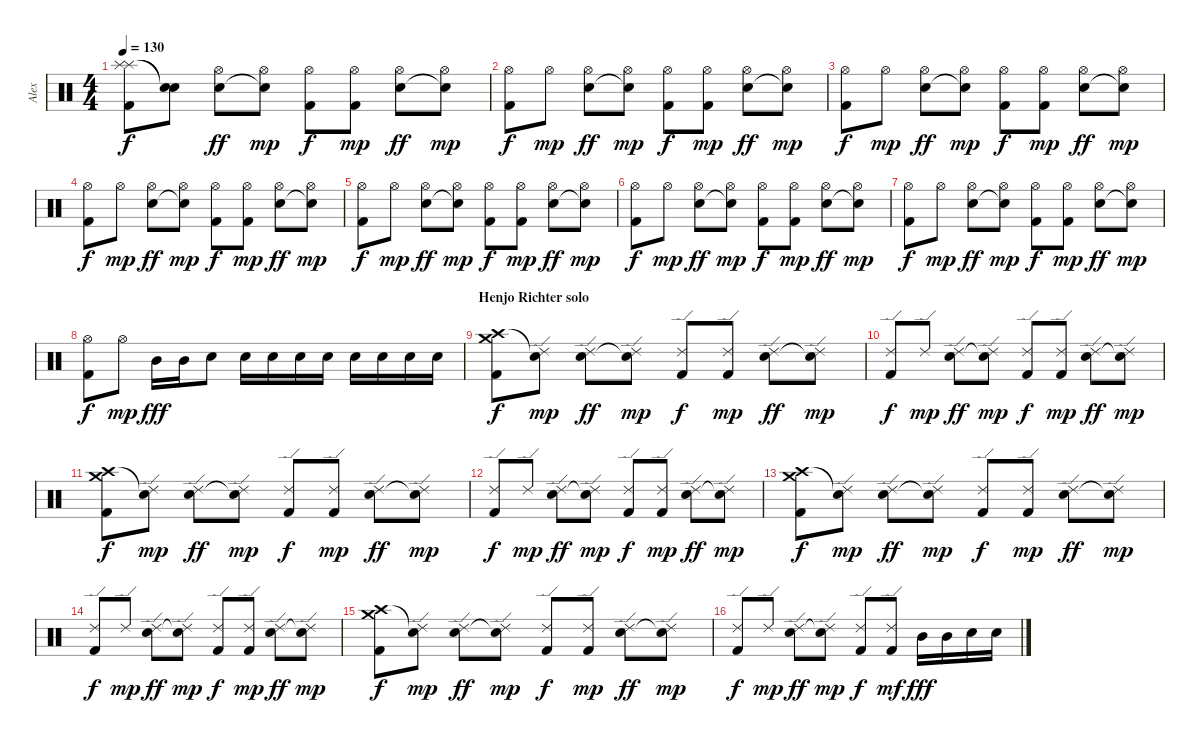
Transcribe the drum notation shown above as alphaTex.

\track ("Alex" "Alex") {instrument percussion}
\staff {score}
\articulation defaults
\ts (4 4)
\tempo 130
\clef neutral
\ks c
("Splash (hit)" "Splash (hit)" "Kick (hit) 2").8{dy f} ("Snare (hit)"{t} "Snare (hit)"{t}).8 ("Hi-Hat (open)" "Electric Snare (hit)").8{dy ff} ("Hi-Hat (open)" "Snare (hit)"{t}).8{dy mp} ("Hi-Hat (open)" "Kick (hit) 2").8{dy f} ("Hi-Hat (open)" "Kick (hit) 2").8{dy mp} ("Hi-Hat (open)" "Electric Snare (hit)").8{dy ff} ("Hi-Hat (open)" "Snare (hit)"{t}).8{dy mp} |
("Hi-Hat (open)" "Kick (hit) 2").8{dy f} "Hi-Hat (open)".8{dy mp} ("Hi-Hat (open)" "Electric Snare (hit)").8{dy ff} ("Hi-Hat (open)" "Snare (hit)"{t}).8{dy mp} ("Hi-Hat (open)" "Kick (hit) 2").8{dy f} ("Hi-Hat (open)" "Kick (hit) 2").8{dy mp} ("Hi-Hat (open)" "Electric Snare (hit)").8{dy ff} ("Hi-Hat (open)" "Snare (hit)"{t}).8{dy mp} |
("Hi-Hat (open)" "Kick (hit) 2").8{dy f} "Hi-Hat (open)".8{dy mp} ("Hi-Hat (open)" "Electric Snare (hit)").8{dy ff} ("Hi-Hat (open)" "Snare (hit)"{t}).8{dy mp} ("Hi-Hat (open)" "Kick (hit) 2").8{dy f} ("Hi-Hat (open)" "Kick (hit) 2").8{dy mp} ("Hi-Hat (open)" "Electric Snare (hit)").8{dy ff} ("Hi-Hat (open)" "Snare (hit)"{t}).8{dy mp} |
("Hi-Hat (open)" "Kick (hit) 2").8{dy f} "Hi-Hat (open)".8{dy mp} ("Hi-Hat (open)" "Electric Snare (hit)").8{dy ff} ("Hi-Hat (open)" "Snare (hit)"{t}).8{dy mp} ("Hi-Hat (open)" "Kick (hit) 2").8{dy f} ("Hi-Hat (open)" "Kick (hit) 2").8{dy mp} ("Hi-Hat (open)" "Electric Snare (hit)").8{dy ff} ("Hi-Hat (open)" "Snare (hit)"{t}).8{dy mp} |
("Hi-Hat (open)" "Kick (hit) 2").8{dy f} "Hi-Hat (open)".8{dy mp} ("Hi-Hat (open)" "Electric Snare (hit)").8{dy ff} ("Hi-Hat (open)" "Snare (hit)"{t}).8{dy mp} ("Hi-Hat (open)" "Kick (hit) 2").8{dy f} ("Hi-Hat (open)" "Kick (hit) 2").8{dy mp} ("Hi-Hat (open)" "Electric Snare (hit)").8{dy ff} ("Hi-Hat (open)" "Snare (hit)"{t}).8{dy mp} |
("Hi-Hat (open)" "Kick (hit) 2").8{dy f} "Hi-Hat (open)".8{dy mp} ("Hi-Hat (open)" "Electric Snare (hit)").8{dy ff} ("Hi-Hat (open)" "Snare (hit)"{t}).8{dy mp} ("Hi-Hat (open)" "Kick (hit) 2").8{dy f} ("Hi-Hat (open)" "Kick (hit) 2").8{dy mp} ("Hi-Hat (open)" "Electric Snare (hit)").8{dy ff} ("Hi-Hat (open)" "Snare (hit)"{t}).8{dy mp} |
("Hi-Hat (open)" "Kick (hit) 2").8{dy f} "Hi-Hat (open)".8{dy mp} ("Hi-Hat (open)" "Electric Snare (hit)").8{dy ff} ("Hi-Hat (open)" "Snare (hit)"{t}).8{dy mp} ("Hi-Hat (open)" "Kick (hit) 2").8{dy f} ("Hi-Hat (open)" "Kick (hit) 2").8{dy mp} ("Hi-Hat (open)" "Electric Snare (hit)").8{dy ff} ("Hi-Hat (open)" "Snare (hit)"{t}).8{dy mp} |
("Hi-Hat (open)" "Kick (hit) 2").8{dy f} "Hi-Hat (open)".8{dy mp} "Mid Tom (hit)".16{dy fff} "Mid Tom (hit)".16 "Electric Snare (hit)".8 "Electric Snare (hit)".16 "Electric Snare (hit)".16 "Electric Snare (hit)".16 "Electric Snare (hit)".16 "Electric Snare (hit)".16 "Electric Snare (hit)".16 "Electric Snare (hit)".16 "Electric Snare (hit)".16 |
\section ("" "Henjo Richter solo")
("Crash high (hit)" "Crash medium (hit)" "Kick (hit) 2").8{dy f} ("Snare (hit)"{t} "Ride (edge) 2").8{dy mp} ("Ride (edge) 2" "Electric Snare (hit)").8{dy ff} ("Ride (edge) 2" "Snare (hit)"{t}).8{dy mp} ("Ride (edge) 2" "Kick (hit) 2").8{dy f} ("Ride (edge) 2" "Kick (hit) 2").8{dy mp} ("Ride (edge) 2" "Electric Snare (hit)").8{dy ff} ("Ride (edge) 2" "Snare (hit)"{t}).8{dy mp} |
("Ride (edge) 2" "Kick (hit) 2").8{dy f} "Ride (edge) 2".8{dy mp} ("Ride (edge) 2" "Electric Snare (hit)").8{dy ff} ("Ride (edge) 2" "Snare (hit)"{t}).8{dy mp} ("Ride (edge) 2" "Kick (hit) 2").8{dy f} ("Ride (edge) 2" "Kick (hit) 2").8{dy mp} ("Ride (edge) 2" "Electric Snare (hit)").8{dy ff} ("Ride (edge) 2" "Snare (hit)"{t}).8{dy mp} |
("Crash high (hit)" "Crash medium (hit)" "Kick (hit) 2").8{dy f} ("Snare (hit)"{t} "Ride (edge) 2").8{dy mp} ("Ride (edge) 2" "Electric Snare (hit)").8{dy ff} ("Ride (edge) 2" "Snare (hit)"{t}).8{dy mp} ("Ride (edge) 2" "Kick (hit) 2").8{dy f} ("Ride (edge) 2" "Kick (hit) 2").8{dy mp} ("Ride (edge) 2" "Electric Snare (hit)").8{dy ff} ("Ride (edge) 2" "Snare (hit)"{t}).8{dy mp} |
("Ride (edge) 2" "Kick (hit) 2").8{dy f} "Ride (edge) 2".8{dy mp} ("Ride (edge) 2" "Electric Snare (hit)").8{dy ff} ("Ride (edge) 2" "Snare (hit)"{t}).8{dy mp} ("Ride (edge) 2" "Kick (hit) 2").8{dy f} ("Ride (edge) 2" "Kick (hit) 2").8{dy mp} ("Ride (edge) 2" "Electric Snare (hit)").8{dy ff} ("Ride (edge) 2" "Snare (hit)"{t}).8{dy mp} |
("Crash high (hit)" "Crash medium (hit)" "Kick (hit) 2").8{dy f} ("Snare (hit)"{t} "Ride (edge) 2").8{dy mp} ("Ride (edge) 2" "Electric Snare (hit)").8{dy ff} ("Ride (edge) 2" "Snare (hit)"{t}).8{dy mp} ("Ride (edge) 2" "Kick (hit) 2").8{dy f} ("Ride (edge) 2" "Kick (hit) 2").8{dy mp} ("Ride (edge) 2" "Electric Snare (hit)").8{dy ff} ("Ride (edge) 2" "Snare (hit)"{t}).8{dy mp} |
("Ride (edge) 2" "Kick (hit) 2").8{dy f} "Ride (edge) 2".8{dy mp} ("Ride (edge) 2" "Electric Snare (hit)").8{dy ff} ("Ride (edge) 2" "Snare (hit)"{t}).8{dy mp} ("Ride (edge) 2" "Kick (hit) 2").8{dy f} ("Ride (edge) 2" "Kick (hit) 2").8{dy mp} ("Ride (edge) 2" "Electric Snare (hit)").8{dy ff} ("Ride (edge) 2" "Snare (hit)"{t}).8{dy mp} |
("Crash high (hit)" "Crash medium (hit)" "Kick (hit) 2").8{dy f} ("Snare (hit)"{t} "Ride (edge) 2").8{dy mp} ("Ride (edge) 2" "Electric Snare (hit)").8{dy ff} ("Ride (edge) 2" "Snare (hit)"{t}).8{dy mp} ("Ride (edge) 2" "Kick (hit) 2").8{dy f} ("Ride (edge) 2" "Kick (hit) 2").8{dy mp} ("Ride (edge) 2" "Electric Snare (hit)").8{dy ff} ("Ride (edge) 2" "Snare (hit)"{t}).8{dy mp} |
("Ride (edge) 2" "Kick (hit) 2").8{dy f} "Ride (edge) 2".8{dy mp} ("Ride (edge) 2" "Electric Snare (hit)").8{dy ff} ("Ride (edge) 2" "Snare (hit)"{t}).8{dy mp} ("Ride (edge) 2" "Kick (hit) 2").8{dy f} ("Ride (edge) 2" "Kick (hit) 2").8{dy mf} "Mid Tom (hit)".16{dy fff} "Mid Tom (hit)".16 "Electric Snare (hit)".16 "Electric Snare (hit)".16
